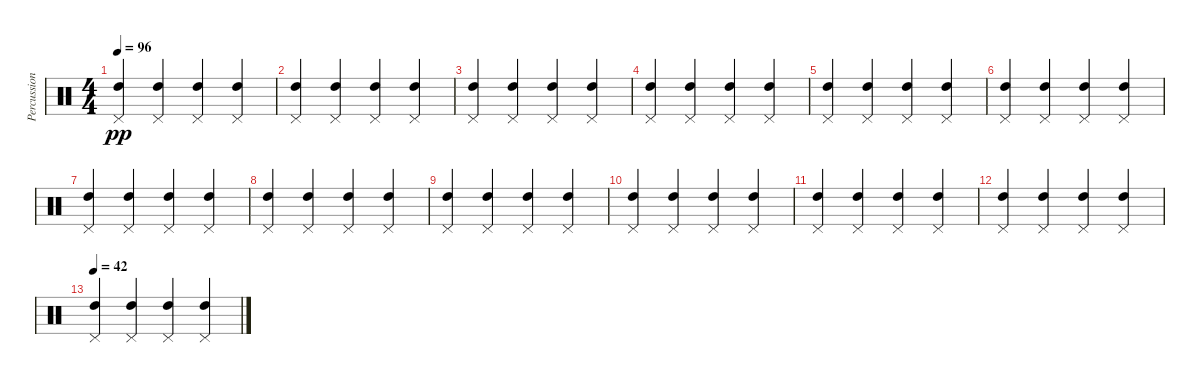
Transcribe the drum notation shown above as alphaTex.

\track ("Percussions" "Percussion") {instrument percussion}
\staff {score}
\articulation defaults
\ts (4 4)
\tempo 96
\clef neutral
\ks c
("Pedal Hi-Hat (hit)" "High Tom (hit)").4{dy pp} ("Pedal Hi-Hat (hit)" "High Tom (hit)").4 ("Pedal Hi-Hat (hit)" "High Tom (hit)").4 ("Pedal Hi-Hat (hit)" "High Tom (hit)").4 |
("Pedal Hi-Hat (hit)" "High Tom (hit)").4 ("Pedal Hi-Hat (hit)" "High Tom (hit)").4 ("Pedal Hi-Hat (hit)" "High Tom (hit)").4 ("Pedal Hi-Hat (hit)" "High Tom (hit)").4 |
("Pedal Hi-Hat (hit)" "High Tom (hit)").4 ("Pedal Hi-Hat (hit)" "High Tom (hit)").4 ("Pedal Hi-Hat (hit)" "High Tom (hit)").4 ("Pedal Hi-Hat (hit)" "High Tom (hit)").4 |
("Pedal Hi-Hat (hit)" "High Tom (hit)").4 ("Pedal Hi-Hat (hit)" "High Tom (hit)").4 ("Pedal Hi-Hat (hit)" "High Tom (hit)").4 ("Pedal Hi-Hat (hit)" "High Tom (hit)").4 |
("Pedal Hi-Hat (hit)" "High Tom (hit)").4 ("Pedal Hi-Hat (hit)" "High Tom (hit)").4 ("Pedal Hi-Hat (hit)" "High Tom (hit)").4 ("Pedal Hi-Hat (hit)" "High Tom (hit)").4 |
("Pedal Hi-Hat (hit)" "High Tom (hit)").4 ("Pedal Hi-Hat (hit)" "High Tom (hit)").4 ("Pedal Hi-Hat (hit)" "High Tom (hit)").4 ("Pedal Hi-Hat (hit)" "High Tom (hit)").4 |
("Pedal Hi-Hat (hit)" "High Tom (hit)").4 ("Pedal Hi-Hat (hit)" "High Tom (hit)").4 ("Pedal Hi-Hat (hit)" "High Tom (hit)").4 ("Pedal Hi-Hat (hit)" "High Tom (hit)").4 |
("Pedal Hi-Hat (hit)" "High Tom (hit)").4 ("Pedal Hi-Hat (hit)" "High Tom (hit)").4 ("Pedal Hi-Hat (hit)" "High Tom (hit)").4 ("Pedal Hi-Hat (hit)" "High Tom (hit)").4 |
("Pedal Hi-Hat (hit)" "High Tom (hit)").4 ("Pedal Hi-Hat (hit)" "High Tom (hit)").4 ("Pedal Hi-Hat (hit)" "High Tom (hit)").4 ("Pedal Hi-Hat (hit)" "High Tom (hit)").4 |
("Pedal Hi-Hat (hit)" "High Tom (hit)").4 ("Pedal Hi-Hat (hit)" "High Tom (hit)").4 ("Pedal Hi-Hat (hit)" "High Tom (hit)").4 ("Pedal Hi-Hat (hit)" "High Tom (hit)").4 |
("Pedal Hi-Hat (hit)" "High Tom (hit)").4 ("Pedal Hi-Hat (hit)" "High Tom (hit)").4 ("Pedal Hi-Hat (hit)" "High Tom (hit)").4 ("Pedal Hi-Hat (hit)" "High Tom (hit)").4 |
("Pedal Hi-Hat (hit)" "High Tom (hit)").4 ("Pedal Hi-Hat (hit)" "High Tom (hit)").4 ("Pedal Hi-Hat (hit)" "High Tom (hit)").4 ("Pedal Hi-Hat (hit)" "High Tom (hit)").4 |
\tempo 42
("Pedal Hi-Hat (hit)" "High Tom (hit)").4 ("Pedal Hi-Hat (hit)" "High Tom (hit)").4 ("Pedal Hi-Hat (hit)" "High Tom (hit)").4 ("Pedal Hi-Hat (hit)" "High Tom (hit)").4
